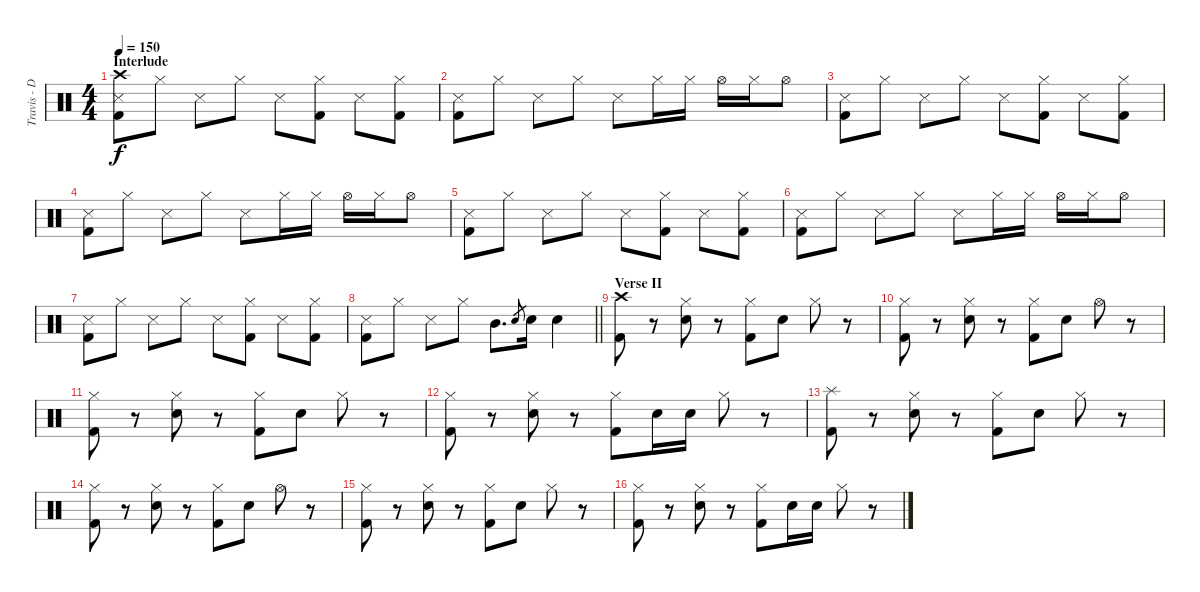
\track ("Travis - Drums" "Travis - D") {instrument percussion}
\staff {score}
\articulation defaults
\ts (4 4)
\section ("" "Interlude")
\tempo 150
\clef neutral
\ks c
("Crash high (hit)" "Snare (side stick) 3" "Kick (hit) 2").8{dy f} "Hi-Hat (closed)".8 "Snare (side stick) 3".8 "Hi-Hat (closed)".8 "Snare (side stick) 3".8 ("Hi-Hat (closed)" "Kick (hit) 2").8 "Snare (side stick) 3".8 ("Hi-Hat (closed)" "Kick (hit) 2").8 |
("Snare (side stick) 3" "Kick (hit) 2").8 "Hi-Hat (closed)".8 "Snare (side stick) 3".8 "Hi-Hat (closed)".8 "Snare (side stick) 3".8 "Hi-Hat (closed)".16 "Hi-Hat (closed)".16 "Hi-Hat (open)".16 "Hi-Hat (closed)".16 "Hi-Hat (open)".8 |
("Snare (side stick) 3" "Kick (hit) 2").8 "Hi-Hat (closed)".8 "Snare (side stick) 3".8 "Hi-Hat (closed)".8 "Snare (side stick) 3".8 ("Hi-Hat (closed)" "Kick (hit) 2").8 "Snare (side stick) 3".8 ("Hi-Hat (closed)" "Kick (hit) 2").8 |
("Snare (side stick) 3" "Kick (hit) 2").8 "Hi-Hat (closed)".8 "Snare (side stick) 3".8 "Hi-Hat (closed)".8 "Snare (side stick) 3".8 "Hi-Hat (closed)".16 "Hi-Hat (closed)".16 "Hi-Hat (open)".16 "Hi-Hat (closed)".16 "Hi-Hat (open)".8 |
("Snare (side stick) 3" "Kick (hit) 2").8 "Hi-Hat (closed)".8 "Snare (side stick) 3".8 "Hi-Hat (closed)".8 "Snare (side stick) 3".8 ("Hi-Hat (closed)" "Kick (hit) 2").8 "Snare (side stick) 3".8 ("Hi-Hat (closed)" "Kick (hit) 2").8 |
("Snare (side stick) 3" "Kick (hit) 2").8 "Hi-Hat (closed)".8 "Snare (side stick) 3".8 "Hi-Hat (closed)".8 "Snare (side stick) 3".8 "Hi-Hat (closed)".16 "Hi-Hat (closed)".16 "Hi-Hat (open)".16 "Hi-Hat (closed)".16 "Hi-Hat (open)".8 |
("Snare (side stick) 3" "Kick (hit) 2").8 "Hi-Hat (closed)".8 "Snare (side stick) 3".8 "Hi-Hat (closed)".8 "Snare (side stick) 3".8 ("Hi-Hat (closed)" "Kick (hit) 2").8 "Snare (side stick) 3".8 ("Hi-Hat (closed)" "Kick (hit) 2").8 |
\barLineRight lightlight
("Snare (side stick) 3" "Kick (hit) 2").8 "Hi-Hat (closed)".8 "Snare (side stick) 3".8 "Hi-Hat (closed)".8 "Mid Tom (hit)".8{d} "Electric Snare (hit)".8{gr} "Electric Snare (hit)".16 "Electric Snare (hit)".4 |
\section ("" "Verse II")
("Crash high (hit)" "Kick (hit) 2").8 r.8 ("Hi-Hat (closed)" "Electric Snare (hit)").8 r.8 ("Hi-Hat (closed)" "Kick (hit) 2").8 "Electric Snare (hit)".8 "Hi-Hat (closed)".8 r.8 |
("Hi-Hat (closed)" "Kick (hit) 2").8 r.8 ("Hi-Hat (closed)" "Electric Snare (hit)").8 r.8 ("Hi-Hat (closed)" "Kick (hit) 2").8 "Electric Snare (hit)".8 "Hi-Hat (open)".8 r.8 |
("Hi-Hat (closed)" "Kick (hit) 2").8 r.8 ("Hi-Hat (closed)" "Electric Snare (hit)").8 r.8 ("Hi-Hat (closed)" "Kick (hit) 2").8 "Electric Snare (hit)".8 "Hi-Hat (closed)".8 r.8 |
("Hi-Hat (closed)" "Kick (hit) 2").8 r.8 ("Hi-Hat (closed)" "Electric Snare (hit)").8 r.8 ("Hi-Hat (closed)" "Kick (hit) 2").8 "Electric Snare (hit)".16 "Electric Snare (hit)".16 "Hi-Hat (closed)".8 r.8 |
("Splash (hit)" "Kick (hit) 2").8 r.8 ("Hi-Hat (closed)" "Electric Snare (hit)").8 r.8 ("Hi-Hat (closed)" "Kick (hit) 2").8 "Electric Snare (hit)".8 "Hi-Hat (closed)".8 r.8 |
("Hi-Hat (closed)" "Kick (hit) 2").8 r.8 ("Hi-Hat (closed)" "Electric Snare (hit)").8 r.8 ("Hi-Hat (closed)" "Kick (hit) 2").8 "Electric Snare (hit)".8 "Hi-Hat (open)".8 r.8 |
("Hi-Hat (closed)" "Kick (hit) 2").8 r.8 ("Hi-Hat (closed)" "Electric Snare (hit)").8 r.8 ("Hi-Hat (closed)" "Kick (hit) 2").8 "Electric Snare (hit)".8 "Hi-Hat (closed)".8 r.8 |
("Hi-Hat (closed)" "Kick (hit) 2").8 r.8 ("Hi-Hat (closed)" "Electric Snare (hit)").8 r.8 ("Hi-Hat (closed)" "Kick (hit) 2").8 "Electric Snare (hit)".16 "Electric Snare (hit)".16 "Hi-Hat (closed)".8 r.8
